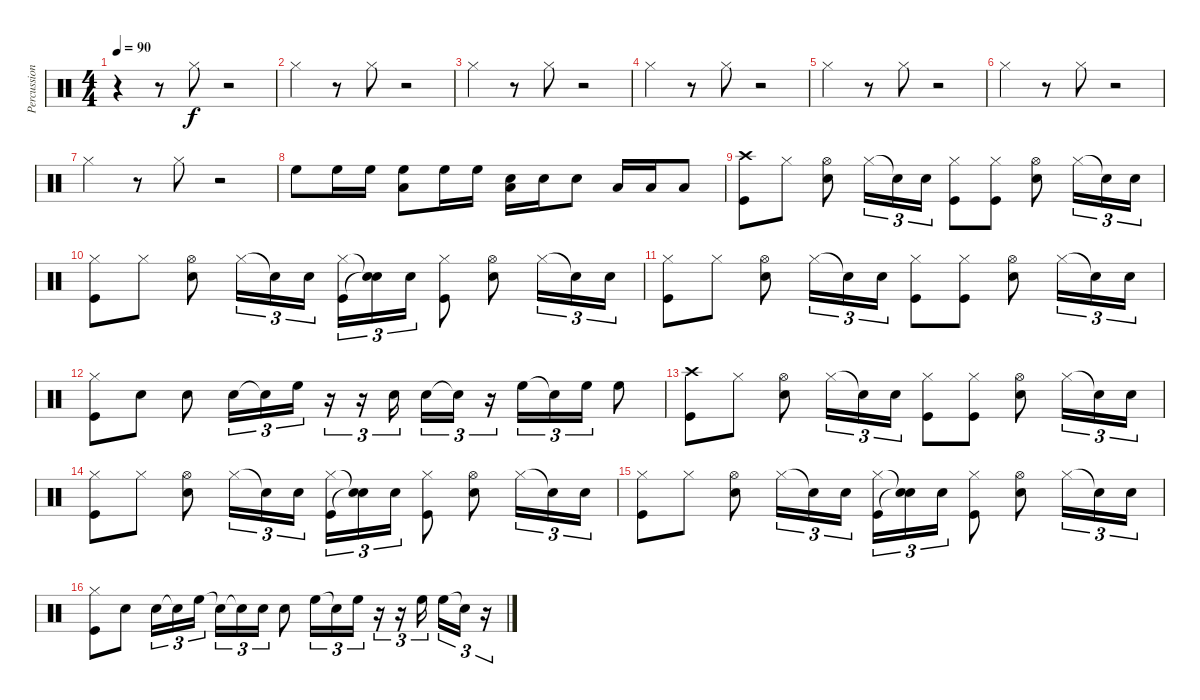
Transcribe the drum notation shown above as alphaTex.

\track ("Percussion" "Percussion") {instrument percussion}
\staff {score}
\articulation defaults
\ts (4 4)
\tempo 90
\clef neutral
\ks c
r.4{dy f} r.8 "Hi-Hat (closed)".8 r.2 |
"Hi-Hat (closed)".4 r.8 "Hi-Hat (closed)".8 r.2 |
"Hi-Hat (closed)".4 r.8 "Hi-Hat (closed)".8 r.2 |
"Hi-Hat (closed)".4 r.8 "Hi-Hat (closed)".8 r.2 |
"Hi-Hat (closed)".4 r.8 "Hi-Hat (closed)".8 r.2 |
"Hi-Hat (closed)".4 r.8 "Hi-Hat (closed)".8 r.2 |
"Hi-Hat (closed)".4 r.8 "Hi-Hat (closed)".8 r.2 |
"High Floor Tom (hit)".8 "High Floor Tom (hit)".16 "High Floor Tom (hit)".16 ("High Floor Tom (hit)" "Low Floor Tom (hit)").8 "High Floor Tom (hit)".16 "High Floor Tom (hit)".16 ("Snare (hit) 2" "Low Floor Tom (hit)").16 "Snare (hit) 2".16 "Snare (hit) 2".8 "Low Floor Tom (hit)".16 "Low Floor Tom (hit)".16 "Low Floor Tom (hit)".8 |
("Crash high (hit)" "Kick (hit)").8 "Hi-Hat (closed)".8 ("Hi-Hat (open)" "Snare (hit) 2").8 "Hi-Hat (closed)".16{tu (3 2)} "Snare (hit)"{t}.16{tu (3 2)} "Snare (hit) 2".16{tu (3 2)} ("Hi-Hat (closed)" "Kick (hit)").8 ("Hi-Hat (closed)" "Kick (hit)").8 ("Hi-Hat (open)" "Snare (hit) 2").8 "Hi-Hat (closed)".16{tu (3 2)} "Snare (hit)"{t}.16{tu (3 2)} "Snare (hit) 2".16{tu (3 2)} |
("Hi-Hat (closed)" "Kick (hit)").8 "Hi-Hat (closed)".8 ("Hi-Hat (open)" "Snare (hit) 2").8 "Hi-Hat (closed)".16{tu (3 2)} "Snare (hit)"{t}.16{tu (3 2)} "Snare (hit) 2".16{tu (3 2)} ("Hi-Hat (closed)" "Kick (hit)").16{tu (3 2)} ("Snare (hit)"{t} "Snare (hit)"{t}).16{tu (3 2)} "Snare (hit) 2".16{tu (3 2)} ("Hi-Hat (closed)" "Kick (hit)").8 ("Hi-Hat (open)" "Snare (hit) 2").8 "Hi-Hat (closed)".16{tu (3 2)} "Snare (hit)"{t}.16{tu (3 2)} "Snare (hit) 2".16{tu (3 2)} |
("Hi-Hat (closed)" "Kick (hit)").8 "Hi-Hat (closed)".8 ("Hi-Hat (open)" "Snare (hit) 2").8 "Hi-Hat (closed)".16{tu (3 2)} "Snare (hit)"{t}.16{tu (3 2)} "Snare (hit) 2".16{tu (3 2)} ("Hi-Hat (closed)" "Kick (hit)").8 ("Hi-Hat (closed)" "Kick (hit)").8 ("Hi-Hat (open)" "Snare (hit) 2").8 "Hi-Hat (closed)".16{tu (3 2)} "Snare (hit)"{t}.16{tu (3 2)} "Snare (hit) 2".16{tu (3 2)} |
("Hi-Hat (closed)" "Kick (hit)").8 "Snare (hit) 2".8 "Snare (hit) 2".8 "Snare (hit) 2".16{tu (3 2)} "Snare (hit)"{t}.16{tu (3 2)} "High Floor Tom (hit)".16{tu (3 2)} r.16{tu (3 2)} r.16{tu (3 2)} "Snare (hit) 2".16{tu (3 2)} "Snare (hit) 2".16{tu (3 2)} "Snare (hit)"{t}.16{tu (3 2)} r.16{tu (3 2)} "High Floor Tom (hit)".16{tu (3 2)} "Snare (hit)"{t}.16{tu (3 2)} "High Floor Tom (hit)".16{tu (3 2)} "High Floor Tom (hit)".8 |
("Crash high (hit)" "Kick (hit)").8 "Hi-Hat (closed)".8 ("Hi-Hat (open)" "Snare (hit) 2").8 "Hi-Hat (closed)".16{tu (3 2)} "Snare (hit)"{t}.16{tu (3 2)} "Snare (hit) 2".16{tu (3 2)} ("Hi-Hat (closed)" "Kick (hit)").8 ("Hi-Hat (closed)" "Kick (hit)").8 ("Hi-Hat (open)" "Snare (hit) 2").8 "Hi-Hat (closed)".16{tu (3 2)} "Snare (hit)"{t}.16{tu (3 2)} "Snare (hit) 2".16{tu (3 2)} |
("Hi-Hat (closed)" "Kick (hit)").8 "Hi-Hat (closed)".8 ("Hi-Hat (open)" "Snare (hit) 2").8 "Hi-Hat (closed)".16{tu (3 2)} "Snare (hit)"{t}.16{tu (3 2)} "Snare (hit) 2".16{tu (3 2)} ("Hi-Hat (closed)" "Kick (hit)").16{tu (3 2)} ("Snare (hit)"{t} "Snare (hit)"{t}).16{tu (3 2)} "Snare (hit) 2".16{tu (3 2)} ("Hi-Hat (closed)" "Kick (hit)").8 ("Hi-Hat (open)" "Snare (hit) 2").8 "Hi-Hat (closed)".16{tu (3 2)} "Snare (hit)"{t}.16{tu (3 2)} "Snare (hit) 2".16{tu (3 2)} |
("Hi-Hat (closed)" "Kick (hit)").8 "Hi-Hat (closed)".8 ("Hi-Hat (open)" "Snare (hit) 2").8 "Hi-Hat (closed)".16{tu (3 2)} "Snare (hit)"{t}.16{tu (3 2)} "Snare (hit) 2".16{tu (3 2)} ("Hi-Hat (closed)" "Kick (hit)").16{tu (3 2)} ("Snare (hit)"{t} "Snare (hit)"{t}).16{tu (3 2)} "Snare (hit) 2".16{tu (3 2)} ("Hi-Hat (closed)" "Kick (hit)").8 ("Hi-Hat (open)" "Snare (hit) 2").8 "Hi-Hat (closed)".16{tu (3 2)} "Snare (hit)"{t}.16{tu (3 2)} "Snare (hit) 2".16{tu (3 2)} |
("Hi-Hat (closed)" "Kick (hit)").8 "Snare (hit) 2".8 "Snare (hit) 2".16{tu (3 2)} "Snare (hit)"{t}.16{tu (3 2)} "High Floor Tom (hit)".16{tu (3 2)} "Snare (hit)"{t}.16{tu (3 2)} "Snare (hit)"{t}.16{tu (3 2)} "Snare (hit) 2".16{tu (3 2)} "Snare (hit) 2".8 "High Floor Tom (hit)".16{tu (3 2)} "Snare (hit)"{t}.16{tu (3 2)} "High Floor Tom (hit)".16{tu (3 2)} r.16{tu (3 2)} r.16{tu (3 2)} "High Floor Tom (hit)".16{tu (3 2)} "High Floor Tom (hit)".16{tu (3 2)} "Snare (hit)"{t}.16{tu (3 2)} r.16{tu (3 2)}
